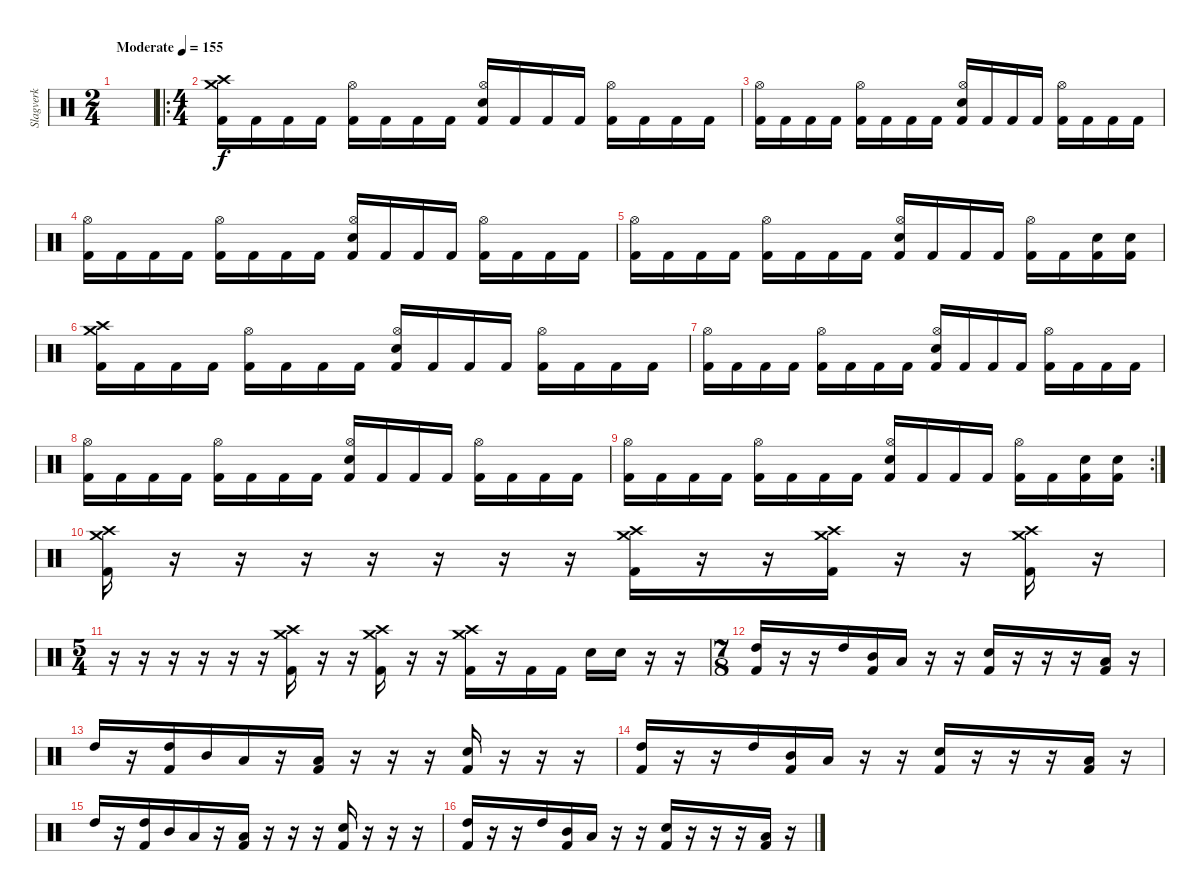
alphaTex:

\track ("Slagverk" "Slagverk") {instrument percussion}
\staff {score}
\articulation defaults
\ts (2 4)
\tempo (155 "Moderate")
\clef neutral
\ks c
|
\ro
\ts (4 4)
("Kick (hit) 2" "Crash medium (hit)" "Crash high (hit)").16 "Kick (hit) 2".16 "Kick (hit) 2".16 "Kick (hit) 2".16 ("Kick (hit) 2" "Hi-Hat (open)").16 "Kick (hit) 2".16 "Kick (hit) 2".16 "Kick (hit) 2".16 ("Kick (hit) 2" "Electric Snare (hit)" "Hi-Hat (open)").16 "Kick (hit) 2".16 "Kick (hit) 2".16 "Kick (hit) 2".16 ("Kick (hit) 2" "Hi-Hat (open)").16 "Kick (hit) 2".16 "Kick (hit) 2".16 "Kick (hit) 2".16 |
("Kick (hit) 2" "Hi-Hat (open)").16 "Kick (hit) 2".16 "Kick (hit) 2".16 "Kick (hit) 2".16 ("Kick (hit) 2" "Hi-Hat (open)").16 "Kick (hit) 2".16 "Kick (hit) 2".16 "Kick (hit) 2".16 ("Kick (hit) 2" "Electric Snare (hit)" "Hi-Hat (open)").16 "Kick (hit) 2".16 "Kick (hit) 2".16 "Kick (hit) 2".16 ("Kick (hit) 2" "Hi-Hat (open)").16 "Kick (hit) 2".16 "Kick (hit) 2".16 "Kick (hit) 2".16 |
("Kick (hit) 2" "Hi-Hat (open)").16 "Kick (hit) 2".16 "Kick (hit) 2".16 "Kick (hit) 2".16 ("Kick (hit) 2" "Hi-Hat (open)").16 "Kick (hit) 2".16 "Kick (hit) 2".16 "Kick (hit) 2".16 ("Kick (hit) 2" "Electric Snare (hit)" "Hi-Hat (open)").16 "Kick (hit) 2".16 "Kick (hit) 2".16 "Kick (hit) 2".16 ("Kick (hit) 2" "Hi-Hat (open)").16 "Kick (hit) 2".16 "Kick (hit) 2".16 "Kick (hit) 2".16 |
("Kick (hit) 2" "Hi-Hat (open)").16 "Kick (hit) 2".16 "Kick (hit) 2".16 "Kick (hit) 2".16 ("Kick (hit) 2" "Hi-Hat (open)").16 "Kick (hit) 2".16 "Kick (hit) 2".16 "Kick (hit) 2".16 ("Kick (hit) 2" "Electric Snare (hit)" "Hi-Hat (open)").16 "Kick (hit) 2".16 "Kick (hit) 2".16 "Kick (hit) 2".16 ("Kick (hit) 2" "Hi-Hat (open)").16 "Kick (hit) 2".16 ("Kick (hit) 2" "Electric Snare (hit)").16 ("Kick (hit) 2" "Electric Snare (hit)").16 |
("Kick (hit) 2" "Crash medium (hit)" "Crash high (hit)").16 "Kick (hit) 2".16 "Kick (hit) 2".16 "Kick (hit) 2".16 ("Kick (hit) 2" "Hi-Hat (open)").16 "Kick (hit) 2".16 "Kick (hit) 2".16 "Kick (hit) 2".16 ("Kick (hit) 2" "Electric Snare (hit)" "Hi-Hat (open)").16 "Kick (hit) 2".16 "Kick (hit) 2".16 "Kick (hit) 2".16 ("Kick (hit) 2" "Hi-Hat (open)").16 "Kick (hit) 2".16 "Kick (hit) 2".16 "Kick (hit) 2".16 |
("Kick (hit) 2" "Hi-Hat (open)").16 "Kick (hit) 2".16 "Kick (hit) 2".16 "Kick (hit) 2".16 ("Kick (hit) 2" "Hi-Hat (open)").16 "Kick (hit) 2".16 "Kick (hit) 2".16 "Kick (hit) 2".16 ("Kick (hit) 2" "Electric Snare (hit)" "Hi-Hat (open)").16 "Kick (hit) 2".16 "Kick (hit) 2".16 "Kick (hit) 2".16 ("Kick (hit) 2" "Hi-Hat (open)").16 "Kick (hit) 2".16 "Kick (hit) 2".16 "Kick (hit) 2".16 |
("Kick (hit) 2" "Hi-Hat (open)").16 "Kick (hit) 2".16 "Kick (hit) 2".16 "Kick (hit) 2".16 ("Kick (hit) 2" "Hi-Hat (open)").16 "Kick (hit) 2".16 "Kick (hit) 2".16 "Kick (hit) 2".16 ("Kick (hit) 2" "Electric Snare (hit)" "Hi-Hat (open)").16 "Kick (hit) 2".16 "Kick (hit) 2".16 "Kick (hit) 2".16 ("Kick (hit) 2" "Hi-Hat (open)").16 "Kick (hit) 2".16 "Kick (hit) 2".16 "Kick (hit) 2".16 |
\rc 2
("Kick (hit) 2" "Hi-Hat (open)").16 "Kick (hit) 2".16 "Kick (hit) 2".16 "Kick (hit) 2".16 ("Kick (hit) 2" "Hi-Hat (open)").16 "Kick (hit) 2".16 "Kick (hit) 2".16 "Kick (hit) 2".16 ("Kick (hit) 2" "Electric Snare (hit)" "Hi-Hat (open)").16 "Kick (hit) 2".16 "Kick (hit) 2".16 "Kick (hit) 2".16 ("Kick (hit) 2" "Hi-Hat (open)").16 "Kick (hit) 2".16 ("Kick (hit) 2" "Electric Snare (hit)").16 ("Kick (hit) 2" "Electric Snare (hit)").16 |
("Kick (hit) 2" "Crash high (hit)" "Crash medium (hit)").16 r.16 r.16 r.16 r.16 r.16 r.16 r.16 ("Kick (hit) 2" "Crash medium (hit)" "Crash high (hit)").16 r.16 r.16 ("Kick (hit) 2" "Crash medium (hit)" "Crash high (hit)").16 r.16 r.16 ("Kick (hit) 2" "Crash medium (hit)" "Crash high (hit)").16 r.16 |
\ts (5 4)
r.16 r.16 r.16 r.16 r.16 r.16 ("Kick (hit) 2" "Crash medium (hit)" "Crash high (hit)").16 r.16 r.16 ("Kick (hit) 2" "Crash medium (hit)" "Crash high (hit)").16 r.16 r.16 ("Kick (hit) 2" "Crash medium (hit)" "Crash high (hit)").16 r.16 "Kick (hit) 2".16 "Kick (hit) 2".16 "Electric Snare (hit)".16 "Electric Snare (hit)".16 r.16 r.16 |
\ts (7 8)
("Kick (hit) 2" "High Tom (hit)").16 r.16 r.16 "High Tom (hit)".16 ("Kick (hit) 2" "Mid Tom (hit)").16 "Low Tom (hit)".16 r.16 r.16 ("Kick (hit) 2" "Electric Snare (hit)").16 r.16 r.16 r.16 ("Kick (hit) 2" "Low Tom (hit)").16 r.16 |
"High Tom (hit)".16 r.16 ("Kick (hit) 2" "High Tom (hit)").16 "Mid Tom (hit)".16 "Low Tom (hit)".16 r.16 ("Kick (hit) 2" "Low Tom (hit)").16 r.16 r.16 r.16 ("Kick (hit) 2" "Electric Snare (hit)").16 r.16 r.16 r.16 |
("Kick (hit) 2" "High Tom (hit)").16 r.16 r.16 "High Tom (hit)".16 ("Kick (hit) 2" "Mid Tom (hit)").16 "Low Tom (hit)".16 r.16 r.16 ("Kick (hit) 2" "Electric Snare (hit)").16 r.16 r.16 r.16 ("Kick (hit) 2" "Low Tom (hit)").16 r.16 |
"High Tom (hit)".16 r.16 ("Kick (hit) 2" "High Tom (hit)").16 "Mid Tom (hit)".16 "Low Tom (hit)".16 r.16 ("Kick (hit) 2" "Low Tom (hit)").16 r.16 r.16 r.16 ("Kick (hit) 2" "Electric Snare (hit)").16 r.16 r.16 r.16 |
("Kick (hit) 2" "High Tom (hit)").16 r.16 r.16 "High Tom (hit)".16 ("Kick (hit) 2" "Mid Tom (hit)").16 "Low Tom (hit)".16 r.16 r.16 ("Kick (hit) 2" "Electric Snare (hit)").16 r.16 r.16 r.16 ("Kick (hit) 2" "Low Tom (hit)").16 r.16
